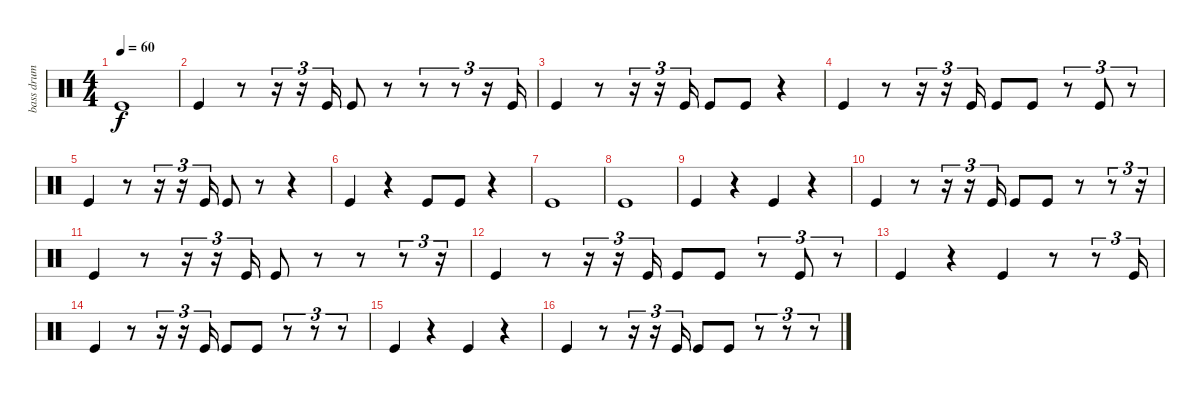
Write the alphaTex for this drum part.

\track ("bass drum" "bass drum") {instrument percussion}
\staff {score}
\articulation defaults
\ts (4 4)
\tempo 60
\clef neutral
\ks c "Kick (hit)".1{dy f}
|
"Kick (hit)".4 r.8 r.16{tu (3 2)} r.16{tu (3 2)} "Kick (hit)".16{tu (3 2)} "Kick (hit)".8 r.8 r.8{tu (3 2)} r.8{tu (3 2)} r.16{tu (3 2)} "Kick (hit)".16{tu (3 2)} |
"Kick (hit)".4 r.8 r.16{tu (3 2)} r.16{tu (3 2)} "Kick (hit)".16{tu (3 2)} "Kick (hit)".8 "Kick (hit)".8 r.4 |
"Kick (hit)".4 r.8 r.16{tu (3 2)} r.16{tu (3 2)} "Kick (hit)".16{tu (3 2)} "Kick (hit)".8 "Kick (hit)".8 r.8{tu (3 2)} "Kick (hit)".8{tu (3 2)} r.8{tu (3 2)} |
"Kick (hit)".4 r.8 r.16{tu (3 2)} r.16{tu (3 2)} "Kick (hit)".16{tu (3 2)} "Kick (hit)".8 r.8 r.4 |
"Kick (hit)".4 r.4 "Kick (hit)".8 "Kick (hit)".8 r.4 |
"Kick (hit)".1 |
"Kick (hit)".1 |
"Kick (hit)".4 r.4 "Kick (hit)".4 r.4 |
"Kick (hit)".4 r.8 r.16{tu (3 2)} r.16{tu (3 2)} "Kick (hit)".16{tu (3 2)} "Kick (hit)".8 "Kick (hit)".8 r.8 r.8{tu (3 2)} r.16{tu (3 2)} |
"Kick (hit)".4 r.8 r.16{tu (3 2)} r.16{tu (3 2)} "Kick (hit)".16{tu (3 2)} "Kick (hit)".8 r.8 r.8 r.8{tu (3 2)} r.16{tu (3 2)} |
"Kick (hit)".4 r.8 r.16{tu (3 2)} r.16{tu (3 2)} "Kick (hit)".16{tu (3 2)} "Kick (hit)".8 "Kick (hit)".8 r.8{tu (3 2)} "Kick (hit)".8{tu (3 2)} r.8{tu (3 2)} |
"Kick (hit)".4 r.4 "Kick (hit)".4 r.8 r.8{tu (3 2)} "Kick (hit)".16{tu (3 2)} |
"Kick (hit)".4 r.8 r.16{tu (3 2)} r.16{tu (3 2)} "Kick (hit)".16{tu (3 2)} "Kick (hit)".8 "Kick (hit)".8 r.8{tu (3 2)} r.8{tu (3 2)} r.8{tu (3 2)} |
"Kick (hit)".4 r.4 "Kick (hit)".4 r.4 |
"Kick (hit)".4 r.8 r.16{tu (3 2)} r.16{tu (3 2)} "Kick (hit)".16{tu (3 2)} "Kick (hit)".8 "Kick (hit)".8 r.8{tu (3 2)} r.8{tu (3 2)} r.8{tu (3 2)}
